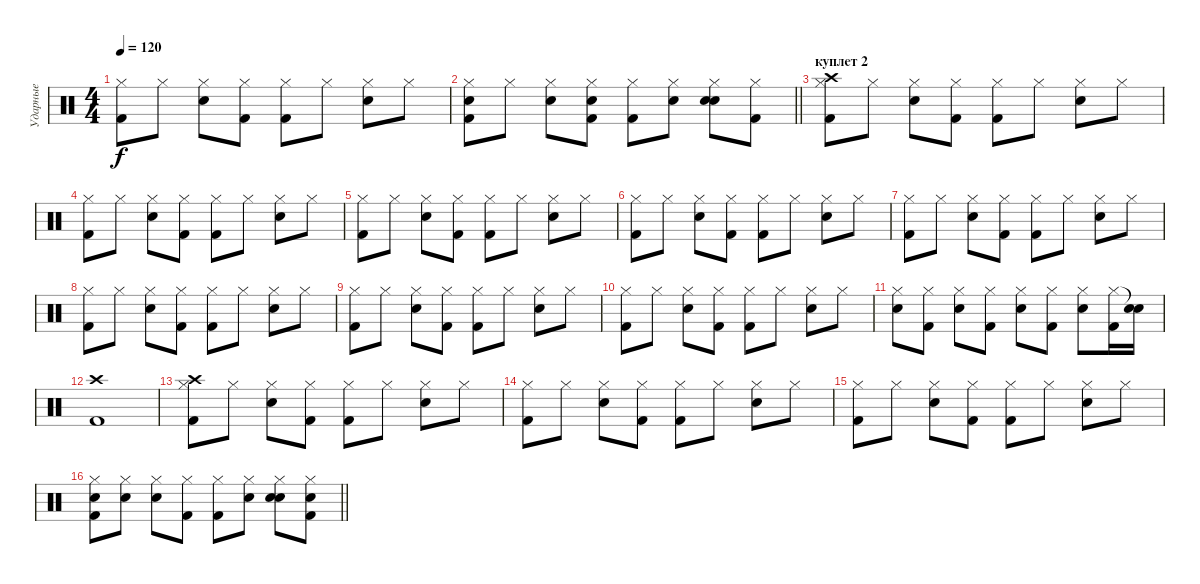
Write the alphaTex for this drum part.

\track ("Ударные" "Ударные") {instrument percussion}
\staff
\articulation defaults
\ts (4 4)
\tempo 120
\clef neutral
\ks c
("Hi-Hat (closed)" "Kick (hit) 2").8{dy f} "Hi-Hat (closed)".8 ("Hi-Hat (closed)" "Snare (hit) 2").8 ("Hi-Hat (closed)" "Kick (hit) 2").8 ("Hi-Hat (closed)" "Kick (hit) 2").8 "Hi-Hat (closed)".8 ("Hi-Hat (closed)" "Snare (hit) 2").8 "Hi-Hat (closed)".8 |
\barLineRight lightlight
("Electric Snare (hit)" "Hi-Hat (closed)" "Kick (hit) 2").8 "Hi-Hat (closed)".8 ("Hi-Hat (closed)" "Snare (hit) 2").8 ("Electric Snare (hit)" "Hi-Hat (closed)" "Kick (hit) 2").8 ("Hi-Hat (closed)" "Kick (hit) 2").8 ("Electric Snare (hit)" "Hi-Hat (closed)").8 ("Electric Snare (hit)" "Hi-Hat (closed)" "Snare (hit) 2").8 ("Hi-Hat (closed)" "Kick (hit) 2").8 |
\section ("" "куплет 2")
("Crash high (hit)" "Hi-Hat (closed)" "Kick (hit) 2").8 "Hi-Hat (closed)".8 ("Hi-Hat (closed)" "Snare (hit) 2").8 ("Hi-Hat (closed)" "Kick (hit) 2").8 ("Hi-Hat (closed)" "Kick (hit) 2").8 "Hi-Hat (closed)".8 ("Hi-Hat (closed)" "Snare (hit) 2").8 "Hi-Hat (closed)".8 |
("Hi-Hat (closed)" "Kick (hit) 2").8 "Hi-Hat (closed)".8 ("Hi-Hat (closed)" "Snare (hit) 2").8 ("Hi-Hat (closed)" "Kick (hit) 2").8 ("Hi-Hat (closed)" "Kick (hit) 2").8 "Hi-Hat (closed)".8 ("Hi-Hat (closed)" "Snare (hit) 2").8 "Hi-Hat (closed)".8 |
("Hi-Hat (closed)" "Kick (hit) 2").8 "Hi-Hat (closed)".8 ("Hi-Hat (closed)" "Snare (hit) 2").8 ("Hi-Hat (closed)" "Kick (hit) 2").8 ("Hi-Hat (closed)" "Kick (hit) 2").8 "Hi-Hat (closed)".8 ("Hi-Hat (closed)" "Snare (hit) 2").8 "Hi-Hat (closed)".8 |
("Hi-Hat (closed)" "Kick (hit) 2").8 "Hi-Hat (closed)".8 ("Hi-Hat (closed)" "Snare (hit) 2").8 ("Hi-Hat (closed)" "Kick (hit) 2").8 ("Hi-Hat (closed)" "Kick (hit) 2").8 "Hi-Hat (closed)".8 ("Hi-Hat (closed)" "Snare (hit) 2").8 "Hi-Hat (closed)".8 |
("Hi-Hat (closed)" "Kick (hit) 2").8 "Hi-Hat (closed)".8 ("Hi-Hat (closed)" "Snare (hit) 2").8 ("Hi-Hat (closed)" "Kick (hit) 2").8 ("Hi-Hat (closed)" "Kick (hit) 2").8 "Hi-Hat (closed)".8 ("Hi-Hat (closed)" "Snare (hit) 2").8 "Hi-Hat (closed)".8 |
("Hi-Hat (closed)" "Kick (hit) 2").8 "Hi-Hat (closed)".8 ("Hi-Hat (closed)" "Snare (hit) 2").8 ("Hi-Hat (closed)" "Kick (hit) 2").8 ("Hi-Hat (closed)" "Kick (hit) 2").8 "Hi-Hat (closed)".8 ("Hi-Hat (closed)" "Snare (hit) 2").8 "Hi-Hat (closed)".8 |
("Hi-Hat (closed)" "Kick (hit) 2").8 "Hi-Hat (closed)".8 ("Hi-Hat (closed)" "Snare (hit) 2").8 ("Hi-Hat (closed)" "Kick (hit) 2").8 ("Hi-Hat (closed)" "Kick (hit) 2").8 "Hi-Hat (closed)".8 ("Hi-Hat (closed)" "Snare (hit) 2").8 "Hi-Hat (closed)".8 |
("Hi-Hat (closed)" "Kick (hit) 2").8 "Hi-Hat (closed)".8 ("Hi-Hat (closed)" "Snare (hit) 2").8 ("Hi-Hat (closed)" "Kick (hit) 2").8 ("Hi-Hat (closed)" "Kick (hit) 2").8 "Hi-Hat (closed)".8 ("Hi-Hat (closed)" "Snare (hit) 2").8 "Hi-Hat (closed)".8 |
("Hi-Hat (closed)" "Snare (hit) 2").8 ("Hi-Hat (closed)" "Kick (hit) 2").8 ("Hi-Hat (closed)" "Snare (hit) 2").8 ("Hi-Hat (closed)" "Kick (hit) 2").8 ("Hi-Hat (closed)" "Snare (hit) 2").8 ("Hi-Hat (closed)" "Kick (hit) 2").8 ("Hi-Hat (closed)" "Snare (hit) 2").8 ("Hi-Hat (closed)" "Kick (hit) 2").16 ("Snare (hit)"{t} "Snare (hit) 2").16 |
("Crash high (hit)" "Kick (hit) 2").1 |
("Crash high (hit)" "Hi-Hat (closed)" "Kick (hit) 2").8 "Hi-Hat (closed)".8 ("Hi-Hat (closed)" "Snare (hit) 2").8 ("Hi-Hat (closed)" "Kick (hit) 2").8 ("Hi-Hat (closed)" "Kick (hit) 2").8 "Hi-Hat (closed)".8 ("Hi-Hat (closed)" "Snare (hit) 2").8 "Hi-Hat (closed)".8 |
("Hi-Hat (closed)" "Kick (hit) 2").8 "Hi-Hat (closed)".8 ("Hi-Hat (closed)" "Snare (hit) 2").8 ("Hi-Hat (closed)" "Kick (hit) 2").8 ("Hi-Hat (closed)" "Kick (hit) 2").8 "Hi-Hat (closed)".8 ("Hi-Hat (closed)" "Snare (hit) 2").8 "Hi-Hat (closed)".8 |
("Hi-Hat (closed)" "Kick (hit) 2").8 "Hi-Hat (closed)".8 ("Hi-Hat (closed)" "Snare (hit) 2").8 ("Hi-Hat (closed)" "Kick (hit) 2").8 ("Hi-Hat (closed)" "Kick (hit) 2").8 "Hi-Hat (closed)".8 ("Hi-Hat (closed)" "Snare (hit) 2").8 "Hi-Hat (closed)".8 |
\barLineRight lightlight
("Electric Snare (hit)" "Hi-Hat (closed)" "Kick (hit) 2").8 ("Electric Snare (hit)" "Hi-Hat (closed)").8 ("Hi-Hat (closed)" "Snare (hit) 2").8 ("Hi-Hat (closed)" "Kick (hit) 2").8 ("Hi-Hat (closed)" "Kick (hit) 2").8 ("Electric Snare (hit)" "Hi-Hat (closed)").8 ("Electric Snare (hit)" "Hi-Hat (closed)" "Snare (hit) 2").8 ("Electric Snare (hit)" "Hi-Hat (closed)" "Kick (hit) 2").8
